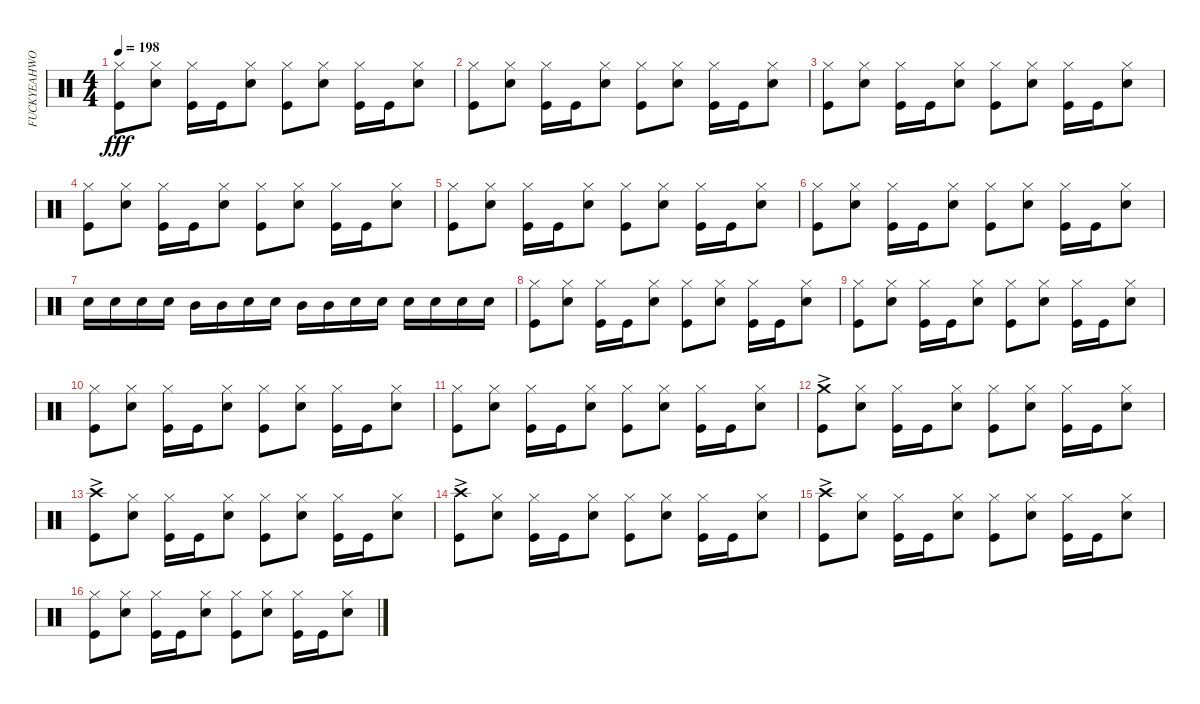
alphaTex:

\track ("FUCKYEAHWOOTDAVEMACKINTOSH!(Percussion)" "FUCKYEAHWO") {instrument percussion}
\staff {score}
\articulation defaults
\ts (4 4)
\tempo 198
\clef neutral
\ks c
("Kick (hit)" "Hi-Hat (closed)").8{dy fff} ("Snare (hit) 2" "Hi-Hat (closed)").8 ("Kick (hit)" "Hi-Hat (closed)").16 "Kick (hit)".16 ("Hi-Hat (closed)" "Snare (hit) 2").8 ("Kick (hit)" "Hi-Hat (closed)").8 ("Snare (hit) 2" "Hi-Hat (closed)").8 ("Kick (hit)" "Hi-Hat (closed)").16 "Kick (hit)".16 ("Snare (hit) 2" "Hi-Hat (closed)").8 |
("Kick (hit)" "Hi-Hat (closed)").8 ("Snare (hit) 2" "Hi-Hat (closed)").8 ("Kick (hit)" "Hi-Hat (closed)").16 "Kick (hit)".16 ("Hi-Hat (closed)" "Snare (hit) 2").8 ("Kick (hit)" "Hi-Hat (closed)").8 ("Snare (hit) 2" "Hi-Hat (closed)").8 ("Kick (hit)" "Hi-Hat (closed)").16 "Kick (hit)".16 ("Snare (hit) 2" "Hi-Hat (closed)").8 |
("Kick (hit)" "Hi-Hat (closed)").8 ("Snare (hit) 2" "Hi-Hat (closed)").8 ("Kick (hit)" "Hi-Hat (closed)").16 "Kick (hit)".16 ("Hi-Hat (closed)" "Snare (hit) 2").8 ("Kick (hit)" "Hi-Hat (closed)").8 ("Snare (hit) 2" "Hi-Hat (closed)").8 ("Kick (hit)" "Hi-Hat (closed)").16 "Kick (hit)".16 ("Snare (hit) 2" "Hi-Hat (closed)").8 |
("Kick (hit)" "Hi-Hat (closed)").8 ("Snare (hit) 2" "Hi-Hat (closed)").8 ("Kick (hit)" "Hi-Hat (closed)").16 "Kick (hit)".16 ("Hi-Hat (closed)" "Snare (hit) 2").8 ("Kick (hit)" "Hi-Hat (closed)").8 ("Snare (hit) 2" "Hi-Hat (closed)").8 ("Kick (hit)" "Hi-Hat (closed)").16 "Kick (hit)".16 ("Snare (hit) 2" "Hi-Hat (closed)").8 |
("Kick (hit)" "Hi-Hat (closed)").8 ("Snare (hit) 2" "Hi-Hat (closed)").8 ("Kick (hit)" "Hi-Hat (closed)").16 "Kick (hit)".16 ("Hi-Hat (closed)" "Snare (hit) 2").8 ("Kick (hit)" "Hi-Hat (closed)").8 ("Snare (hit) 2" "Hi-Hat (closed)").8 ("Kick (hit)" "Hi-Hat (closed)").16 "Kick (hit)".16 ("Snare (hit) 2" "Hi-Hat (closed)").8 |
("Kick (hit)" "Hi-Hat (closed)").8 ("Snare (hit) 2" "Hi-Hat (closed)").8 ("Kick (hit)" "Hi-Hat (closed)").16 "Kick (hit)".16 ("Hi-Hat (closed)" "Snare (hit) 2").8 ("Kick (hit)" "Hi-Hat (closed)").8 ("Snare (hit) 2" "Hi-Hat (closed)").8 ("Kick (hit)" "Hi-Hat (closed)").16 "Kick (hit)".16 ("Snare (hit) 2" "Hi-Hat (closed)").8 |
"Snare (hit) 2".16 "Snare (hit) 2".16 "Snare (hit) 2".16 "Snare (hit) 2".16 "Mid Tom (hit)".16 "Mid Tom (hit)".16 "Snare (hit) 2".16 "Snare (hit) 2".16 "Mid Tom (hit)".16 "Mid Tom (hit)".16 "Snare (hit) 2".16 "Snare (hit) 2".16 "Snare (hit) 2".16 "Snare (hit) 2".16 "Snare (hit) 2".16 "Snare (hit) 2".16 |
("Kick (hit)" "Hi-Hat (closed)").8 ("Snare (hit) 2" "Hi-Hat (closed)").8 ("Kick (hit)" "Hi-Hat (closed)").16 "Kick (hit)".16 ("Hi-Hat (closed)" "Snare (hit) 2").8 ("Kick (hit)" "Hi-Hat (closed)").8 ("Snare (hit) 2" "Hi-Hat (closed)").8 ("Kick (hit)" "Hi-Hat (closed)").16 "Kick (hit)".16 ("Snare (hit) 2" "Hi-Hat (closed)").8 |
("Kick (hit)" "Hi-Hat (closed)").8 ("Snare (hit) 2" "Hi-Hat (closed)").8 ("Kick (hit)" "Hi-Hat (closed)").16 "Kick (hit)".16 ("Hi-Hat (closed)" "Snare (hit) 2").8 ("Kick (hit)" "Hi-Hat (closed)").8 ("Snare (hit) 2" "Hi-Hat (closed)").8 ("Kick (hit)" "Hi-Hat (closed)").16 "Kick (hit)".16 ("Snare (hit) 2" "Hi-Hat (closed)").8 |
("Kick (hit)" "Hi-Hat (closed)").8 ("Snare (hit) 2" "Hi-Hat (closed)").8 ("Kick (hit)" "Hi-Hat (closed)").16 "Kick (hit)".16 ("Hi-Hat (closed)" "Snare (hit) 2").8 ("Kick (hit)" "Hi-Hat (closed)").8 ("Snare (hit) 2" "Hi-Hat (closed)").8 ("Kick (hit)" "Hi-Hat (closed)").16 "Kick (hit)".16 ("Snare (hit) 2" "Hi-Hat (closed)").8 |
("Kick (hit)" "Hi-Hat (closed)").8 ("Snare (hit) 2" "Hi-Hat (closed)").8 ("Kick (hit)" "Hi-Hat (closed)").16 "Kick (hit)".16 ("Hi-Hat (closed)" "Snare (hit) 2").8 ("Kick (hit)" "Hi-Hat (closed)").8 ("Snare (hit) 2" "Hi-Hat (closed)").8 ("Kick (hit)" "Hi-Hat (closed)").16 "Kick (hit)".16 ("Snare (hit) 2" "Hi-Hat (closed)").8 |
("Kick (hit)" "Crash medium (hit)"{ac}).8 ("Snare (hit) 2" "Hi-Hat (closed)").8 ("Kick (hit)" "Hi-Hat (closed)").16 "Kick (hit)".16 ("Hi-Hat (closed)" "Snare (hit) 2").8 ("Kick (hit)" "Hi-Hat (closed)").8 ("Snare (hit) 2" "Hi-Hat (closed)").8 ("Kick (hit)" "Hi-Hat (closed)").16 "Kick (hit)".16 ("Snare (hit) 2" "Hi-Hat (closed)").8 |
("Kick (hit)" "Crash high (hit)"{ac}).8 ("Snare (hit) 2" "Hi-Hat (closed)").8 ("Kick (hit)" "Hi-Hat (closed)").16 "Kick (hit)".16 ("Hi-Hat (closed)" "Snare (hit) 2").8 ("Kick (hit)" "Hi-Hat (closed)").8 ("Snare (hit) 2" "Hi-Hat (closed)").8 ("Kick (hit)" "Hi-Hat (closed)").16 "Kick (hit)".16 ("Snare (hit) 2" "Hi-Hat (closed)").8 |
("Kick (hit)" "Crash high (hit)"{ac}).8 ("Snare (hit) 2" "Hi-Hat (closed)").8 ("Kick (hit)" "Hi-Hat (closed)").16 "Kick (hit)".16 ("Hi-Hat (closed)" "Snare (hit) 2").8 ("Kick (hit)" "Hi-Hat (closed)").8 ("Snare (hit) 2" "Hi-Hat (closed)").8 ("Kick (hit)" "Hi-Hat (closed)").16 "Kick (hit)".16 ("Snare (hit) 2" "Hi-Hat (closed)").8 |
("Kick (hit)" "Crash high (hit)"{ac}).8 ("Snare (hit) 2" "Hi-Hat (closed)").8 ("Kick (hit)" "Hi-Hat (closed)").16 "Kick (hit)".16 ("Hi-Hat (closed)" "Snare (hit) 2").8 ("Kick (hit)" "Hi-Hat (closed)").8 ("Snare (hit) 2" "Hi-Hat (closed)").8 ("Kick (hit)" "Hi-Hat (closed)").16 "Kick (hit)".16 ("Snare (hit) 2" "Hi-Hat (closed)").8 |
("Kick (hit)" "Hi-Hat (closed)").8 ("Snare (hit) 2" "Hi-Hat (closed)").8 ("Kick (hit)" "Hi-Hat (closed)").16 "Kick (hit)".16 ("Hi-Hat (closed)" "Snare (hit) 2").8 ("Kick (hit)" "Hi-Hat (closed)").8 ("Snare (hit) 2" "Hi-Hat (closed)").8 ("Kick (hit)" "Hi-Hat (closed)").16 "Kick (hit)".16 ("Snare (hit) 2" "Hi-Hat (closed)").8
